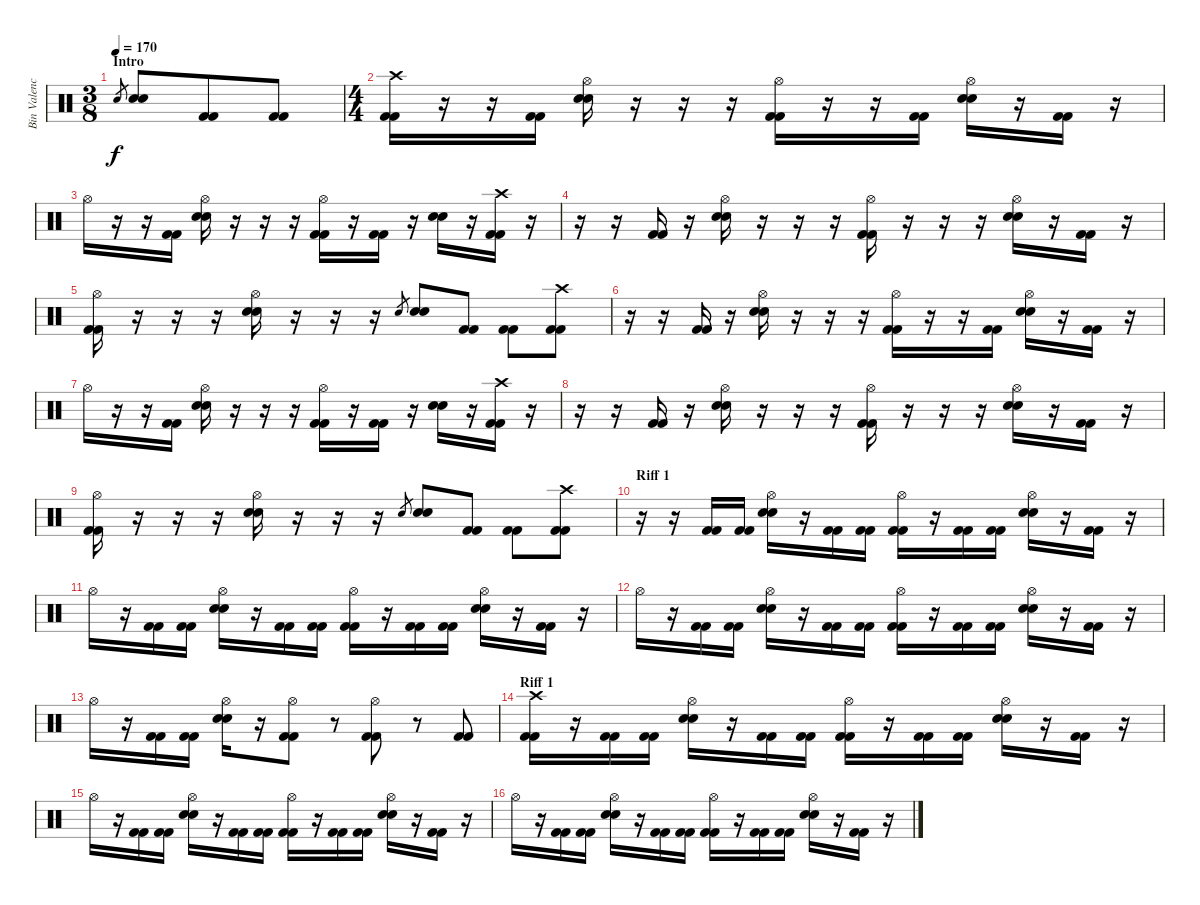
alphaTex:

\track ("Bin Valencia (Bateria)" "Bin Valenc") {instrument percussion}
\staff {score}
\articulation defaults
\ts (3 8)
\section ("" "Intro")
\tempo 170
\clef neutral
\ks c "Snare (hit) 2".8{gr dy f}
("Snare (hit) 2" "Snare (hit) 2").8 ("Kick (hit) 2" "Kick (hit) 2").8 ("Kick (hit) 2" "Kick (hit) 2").8 |
\ts (4 4)
("Crash high (hit)" "Kick (hit) 2" "Kick (hit) 2").16 r.16 r.16 ("Kick (hit) 2" "Kick (hit) 2").16 ("Hi-Hat (open)" "Snare (hit) 2" "Snare (hit) 2").16 r.16 r.16 r.16 ("Hi-Hat (open)" "Kick (hit) 2" "Kick (hit) 2").16 r.16 r.16 ("Kick (hit) 2" "Kick (hit) 2").16 ("Hi-Hat (open)" "Snare (hit) 2" "Snare (hit) 2").16 r.16 ("Kick (hit) 2" "Kick (hit) 2").16 r.16 |
"Hi-Hat (open)".16 r.16 r.16 ("Kick (hit) 2" "Kick (hit) 2").16 ("Hi-Hat (open)" "Snare (hit) 2" "Snare (hit) 2").16 r.16 r.16 r.16 ("Hi-Hat (open)" "Kick (hit) 2" "Kick (hit) 2").16 r.16 ("Kick (hit) 2" "Kick (hit) 2").16 r.16 ("Snare (hit) 2" "Snare (hit) 2").16 r.16 ("Crash high (hit)" "Kick (hit) 2" "Kick (hit) 2").16 r.16 |
r.16 r.16 ("Kick (hit) 2" "Kick (hit) 2").16 r.16 ("Hi-Hat (open)" "Snare (hit) 2" "Snare (hit) 2").16 r.16 r.16 r.16 ("Hi-Hat (open)" "Kick (hit) 2" "Kick (hit) 2").16 r.16 r.16 r.16 ("Hi-Hat (open)" "Snare (hit) 2" "Snare (hit) 2").16 r.16 ("Kick (hit) 2" "Kick (hit) 2").16 r.16 |
("Hi-Hat (open)" "Kick (hit) 2" "Kick (hit) 2").16 r.16 r.16 r.16 ("Hi-Hat (open)" "Snare (hit) 2" "Snare (hit) 2").16 r.16 r.16 r.16 "Snare (hit) 2".8{gr} ("Snare (hit) 2" "Snare (hit) 2").8 ("Kick (hit) 2" "Kick (hit) 2").8 ("Kick (hit) 2" "Kick (hit) 2").8 ("Crash high (hit)" "Kick (hit) 2" "Kick (hit) 2").8 |
r.16 r.16 ("Kick (hit) 2" "Kick (hit) 2").16 r.16 ("Hi-Hat (open)" "Snare (hit) 2" "Snare (hit) 2").16 r.16 r.16 r.16 ("Hi-Hat (open)" "Kick (hit) 2" "Kick (hit) 2").16 r.16 r.16 ("Kick (hit) 2" "Kick (hit) 2").16 ("Hi-Hat (open)" "Snare (hit) 2" "Snare (hit) 2").16 r.16 ("Kick (hit) 2" "Kick (hit) 2").16 r.16 |
"Hi-Hat (open)".16 r.16 r.16 ("Kick (hit) 2" "Kick (hit) 2").16 ("Hi-Hat (open)" "Snare (hit) 2" "Snare (hit) 2").16 r.16 r.16 r.16 ("Hi-Hat (open)" "Kick (hit) 2" "Kick (hit) 2").16 r.16 ("Kick (hit) 2" "Kick (hit) 2").16 r.16 ("Snare (hit) 2" "Snare (hit) 2").16 r.16 ("Crash high (hit)" "Kick (hit) 2" "Kick (hit) 2").16 r.16 |
r.16 r.16 ("Kick (hit) 2" "Kick (hit) 2").16 r.16 ("Hi-Hat (open)" "Snare (hit) 2" "Snare (hit) 2").16 r.16 r.16 r.16 ("Hi-Hat (open)" "Kick (hit) 2" "Kick (hit) 2").16 r.16 r.16 r.16 ("Hi-Hat (open)" "Snare (hit) 2" "Snare (hit) 2").16 r.16 ("Kick (hit) 2" "Kick (hit) 2").16 r.16 |
("Hi-Hat (open)" "Kick (hit) 2" "Kick (hit) 2").16 r.16 r.16 r.16 ("Hi-Hat (open)" "Snare (hit) 2" "Snare (hit) 2").16 r.16 r.16 r.16 "Snare (hit) 2".8{gr} ("Snare (hit) 2" "Snare (hit) 2").8 ("Kick (hit) 2" "Kick (hit) 2").8 ("Kick (hit) 2" "Kick (hit) 2").8 ("Crash high (hit)" "Kick (hit) 2" "Kick (hit) 2").8 |
\section ("" "Riff 1")
r.16 r.16 ("Kick (hit) 2" "Kick (hit) 2").16 ("Kick (hit) 2" "Kick (hit) 2").16 ("Hi-Hat (open)" "Snare (hit) 2" "Snare (hit) 2").16 r.16 ("Kick (hit) 2" "Kick (hit) 2").16 ("Kick (hit) 2" "Kick (hit) 2").16 ("Hi-Hat (open)" "Kick (hit) 2" "Kick (hit) 2").16 r.16 ("Kick (hit) 2" "Kick (hit) 2").16 ("Kick (hit) 2" "Kick (hit) 2").16 ("Hi-Hat (open)" "Snare (hit) 2" "Snare (hit) 2").16 r.16 ("Kick (hit) 2" "Kick (hit) 2").16 r.16 |
"Hi-Hat (open)".16 r.16 ("Kick (hit) 2" "Kick (hit) 2").16 ("Kick (hit) 2" "Kick (hit) 2").16 ("Hi-Hat (open)" "Snare (hit) 2" "Snare (hit) 2").16 r.16 ("Kick (hit) 2" "Kick (hit) 2").16 ("Kick (hit) 2" "Kick (hit) 2").16 ("Hi-Hat (open)" "Kick (hit) 2" "Kick (hit) 2").16 r.16 ("Kick (hit) 2" "Kick (hit) 2").16 ("Kick (hit) 2" "Kick (hit) 2").16 ("Hi-Hat (open)" "Snare (hit) 2" "Snare (hit) 2").16 r.16 ("Kick (hit) 2" "Kick (hit) 2").16 r.16 |
"Hi-Hat (open)".16 r.16 ("Kick (hit) 2" "Kick (hit) 2").16 ("Kick (hit) 2" "Kick (hit) 2").16 ("Hi-Hat (open)" "Snare (hit) 2" "Snare (hit) 2").16 r.16 ("Kick (hit) 2" "Kick (hit) 2").16 ("Kick (hit) 2" "Kick (hit) 2").16 ("Hi-Hat (open)" "Kick (hit) 2" "Kick (hit) 2").16 r.16 ("Kick (hit) 2" "Kick (hit) 2").16 ("Kick (hit) 2" "Kick (hit) 2").16 ("Hi-Hat (open)" "Snare (hit) 2" "Snare (hit) 2").16 r.16 ("Kick (hit) 2" "Kick (hit) 2").16 r.16 |
"Hi-Hat (open)".16 r.16 ("Kick (hit) 2" "Kick (hit) 2").16 ("Kick (hit) 2" "Kick (hit) 2").16 ("Hi-Hat (open)" "Snare (hit) 2" "Snare (hit) 2").16 r.16 ("Hi-Hat (open)" "Kick (hit) 2" "Kick (hit) 2").8 r.8 ("Hi-Hat (open)" "Kick (hit) 2" "Kick (hit) 2").8 r.8 ("Kick (hit) 2" "Kick (hit) 2").8 |
\section ("" "Riff 1")
("Crash high (hit)" "Kick (hit) 2" "Kick (hit) 2").16 r.16 ("Kick (hit) 2" "Kick (hit) 2").16 ("Kick (hit) 2" "Kick (hit) 2").16 ("Hi-Hat (open)" "Snare (hit) 2" "Snare (hit) 2").16 r.16 ("Kick (hit) 2" "Kick (hit) 2").16 ("Kick (hit) 2" "Kick (hit) 2").16 ("Hi-Hat (open)" "Kick (hit) 2" "Kick (hit) 2").16 r.16 ("Kick (hit) 2" "Kick (hit) 2").16 ("Kick (hit) 2" "Kick (hit) 2").16 ("Hi-Hat (open)" "Snare (hit) 2" "Snare (hit) 2").16 r.16 ("Kick (hit) 2" "Kick (hit) 2").16 r.16 |
"Hi-Hat (open)".16 r.16 ("Kick (hit) 2" "Kick (hit) 2").16 ("Kick (hit) 2" "Kick (hit) 2").16 ("Hi-Hat (open)" "Snare (hit) 2" "Snare (hit) 2").16 r.16 ("Kick (hit) 2" "Kick (hit) 2").16 ("Kick (hit) 2" "Kick (hit) 2").16 ("Hi-Hat (open)" "Kick (hit) 2" "Kick (hit) 2").16 r.16 ("Kick (hit) 2" "Kick (hit) 2").16 ("Kick (hit) 2" "Kick (hit) 2").16 ("Hi-Hat (open)" "Snare (hit) 2" "Snare (hit) 2").16 r.16 ("Kick (hit) 2" "Kick (hit) 2").16 r.16 |
"Hi-Hat (open)".16 r.16 ("Kick (hit) 2" "Kick (hit) 2").16 ("Kick (hit) 2" "Kick (hit) 2").16 ("Hi-Hat (open)" "Snare (hit) 2" "Snare (hit) 2").16 r.16 ("Kick (hit) 2" "Kick (hit) 2").16 ("Kick (hit) 2" "Kick (hit) 2").16 ("Hi-Hat (open)" "Kick (hit) 2" "Kick (hit) 2").16 r.16 ("Kick (hit) 2" "Kick (hit) 2").16 ("Kick (hit) 2" "Kick (hit) 2").16 ("Hi-Hat (open)" "Snare (hit) 2" "Snare (hit) 2").16 r.16 ("Kick (hit) 2" "Kick (hit) 2").16 r.16
